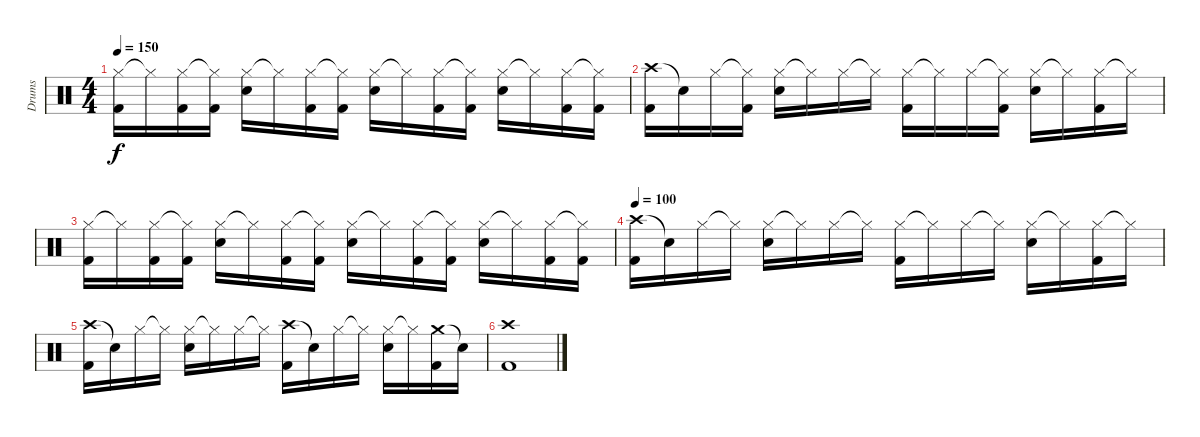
\track ("Drums" "Drums") {instrument percussion}
\staff {score}
\articulation defaults
\ts (4 4)
\tempo 150
\clef neutral
\ks c
("Hi-Hat (closed)" "Kick (hit) 2").16{dy f} "Hi-Hat (closed)"{t}.16 ("Hi-Hat (closed)" "Kick (hit) 2").16 ("Hi-Hat (closed)"{t} "Kick (hit) 2").16 ("Hi-Hat (closed)" "Snare (hit) 2").16 "Hi-Hat (closed)"{t}.16 ("Hi-Hat (closed)" "Kick (hit) 2").16 ("Hi-Hat (closed)"{t} "Kick (hit) 2").16 ("Hi-Hat (closed)" "Snare (hit) 2").16 "Hi-Hat (closed)"{t}.16 ("Hi-Hat (closed)" "Kick (hit) 2").16 ("Hi-Hat (closed)"{t} "Kick (hit) 2").16 ("Hi-Hat (closed)" "Snare (hit) 2").16 "Hi-Hat (closed)"{t}.16 ("Hi-Hat (closed)" "Kick (hit) 2").16 ("Hi-Hat (closed)"{t} "Kick (hit) 2").16 |
("Crash high (hit)" "Kick (hit) 2").16 "Snare (hit)"{t}.16 "Hi-Hat (closed)".16 ("Hi-Hat (closed)"{t} "Kick (hit) 2").16 ("Hi-Hat (closed)" "Snare (hit) 2").16 "Hi-Hat (closed)"{t}.16 "Hi-Hat (closed)".16 "Hi-Hat (closed)"{t}.16 ("Hi-Hat (closed)" "Kick (hit) 2").16 "Hi-Hat (closed)"{t}.16 "Hi-Hat (closed)".16 ("Hi-Hat (closed)"{t} "Kick (hit) 2").16 ("Hi-Hat (closed)" "Snare (hit) 2").16 "Hi-Hat (closed)"{t}.16 ("Hi-Hat (closed)" "Kick (hit) 2").16 "Hi-Hat (closed)"{t}.16 |
("Hi-Hat (closed)" "Kick (hit) 2").16 "Hi-Hat (closed)"{t}.16 ("Hi-Hat (closed)" "Kick (hit) 2").16 ("Hi-Hat (closed)"{t} "Kick (hit) 2").16 ("Hi-Hat (closed)" "Snare (hit) 2").16 "Hi-Hat (closed)"{t}.16 ("Hi-Hat (closed)" "Kick (hit) 2").16 ("Hi-Hat (closed)"{t} "Kick (hit) 2").16 ("Hi-Hat (closed)" "Snare (hit) 2").16 "Hi-Hat (closed)"{t}.16 ("Hi-Hat (closed)" "Kick (hit) 2").16 ("Hi-Hat (closed)"{t} "Kick (hit) 2").16 ("Hi-Hat (closed)" "Snare (hit) 2").16 "Hi-Hat (closed)"{t}.16 ("Hi-Hat (closed)" "Kick (hit) 2").16 ("Hi-Hat (closed)"{t} "Kick (hit) 2").16 |
\tempo 100
("Crash high (hit)" "Kick (hit) 2").16 "Snare (hit)"{t}.16 "Hi-Hat (closed)".16 "Hi-Hat (closed)"{t}.16 ("Hi-Hat (closed)" "Snare (hit) 2").16 "Hi-Hat (closed)"{t}.16 "Hi-Hat (closed)".16 "Hi-Hat (closed)"{t}.16 ("Hi-Hat (closed)" "Kick (hit) 2").16 "Hi-Hat (closed)"{t}.16 "Hi-Hat (closed)".16 "Hi-Hat (closed)"{t}.16 ("Hi-Hat (closed)" "Snare (hit) 2").16 "Hi-Hat (closed)"{t}.16 ("Hi-Hat (closed)" "Kick (hit) 2").16 "Hi-Hat (closed)"{t}.16 |
("Crash high (hit)" "Kick (hit) 2").16 "Snare (hit)"{t}.16 "Hi-Hat (closed)".16 "Hi-Hat (closed)"{t}.16 ("Hi-Hat (closed)" "Snare (hit) 2").16 "Hi-Hat (closed)"{t}.16 "Hi-Hat (closed)".16 "Hi-Hat (closed)"{t}.16 ("Crash high (hit)" "Kick (hit) 2").16 "Snare (hit)"{t}.16 "Hi-Hat (closed)".16 "Hi-Hat (closed)"{t}.16 ("Hi-Hat (closed)" "Snare (hit) 2").16 "Hi-Hat (closed)"{t}.16 ("Crash medium (hit)" "Kick (hit) 2").16 "Snare (hit)"{t}.16 |
("Crash high (hit)" "Kick (hit) 2").1
